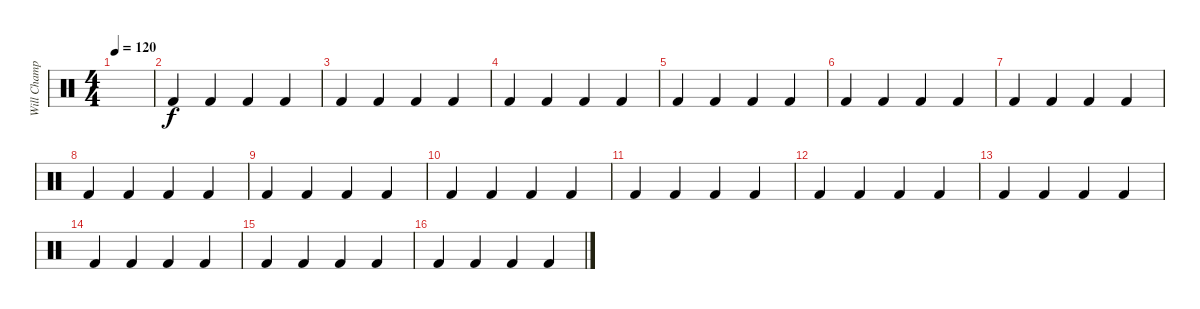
\track ("Will Champion" "Will Champ") {instrument percussion}
\staff {score}
\articulation defaults
\ts (4 4)
\tempo 120
\clef neutral
\ks c
|
"Kick (hit) 2".4 "Kick (hit) 2".4 "Kick (hit) 2".4 "Kick (hit) 2".4 |
"Kick (hit) 2".4 "Kick (hit) 2".4 "Kick (hit) 2".4 "Kick (hit) 2".4 |
"Kick (hit) 2".4 "Kick (hit) 2".4 "Kick (hit) 2".4 "Kick (hit) 2".4 |
"Kick (hit) 2".4 "Kick (hit) 2".4 "Kick (hit) 2".4 "Kick (hit) 2".4 |
"Kick (hit) 2".4 "Kick (hit) 2".4 "Kick (hit) 2".4 "Kick (hit) 2".4 |
"Kick (hit) 2".4 "Kick (hit) 2".4 "Kick (hit) 2".4 "Kick (hit) 2".4 |
"Kick (hit) 2".4 "Kick (hit) 2".4 "Kick (hit) 2".4 "Kick (hit) 2".4 |
"Kick (hit) 2".4 "Kick (hit) 2".4 "Kick (hit) 2".4 "Kick (hit) 2".4 |
"Kick (hit) 2".4 "Kick (hit) 2".4 "Kick (hit) 2".4 "Kick (hit) 2".4 |
"Kick (hit) 2".4 "Kick (hit) 2".4 "Kick (hit) 2".4 "Kick (hit) 2".4 |
"Kick (hit) 2".4 "Kick (hit) 2".4 "Kick (hit) 2".4 "Kick (hit) 2".4 |
"Kick (hit) 2".4 "Kick (hit) 2".4 "Kick (hit) 2".4 "Kick (hit) 2".4 |
"Kick (hit) 2".4 "Kick (hit) 2".4 "Kick (hit) 2".4 "Kick (hit) 2".4 |
"Kick (hit) 2".4 "Kick (hit) 2".4 "Kick (hit) 2".4 "Kick (hit) 2".4 |
"Kick (hit) 2".4 "Kick (hit) 2".4 "Kick (hit) 2".4 "Kick (hit) 2".4
